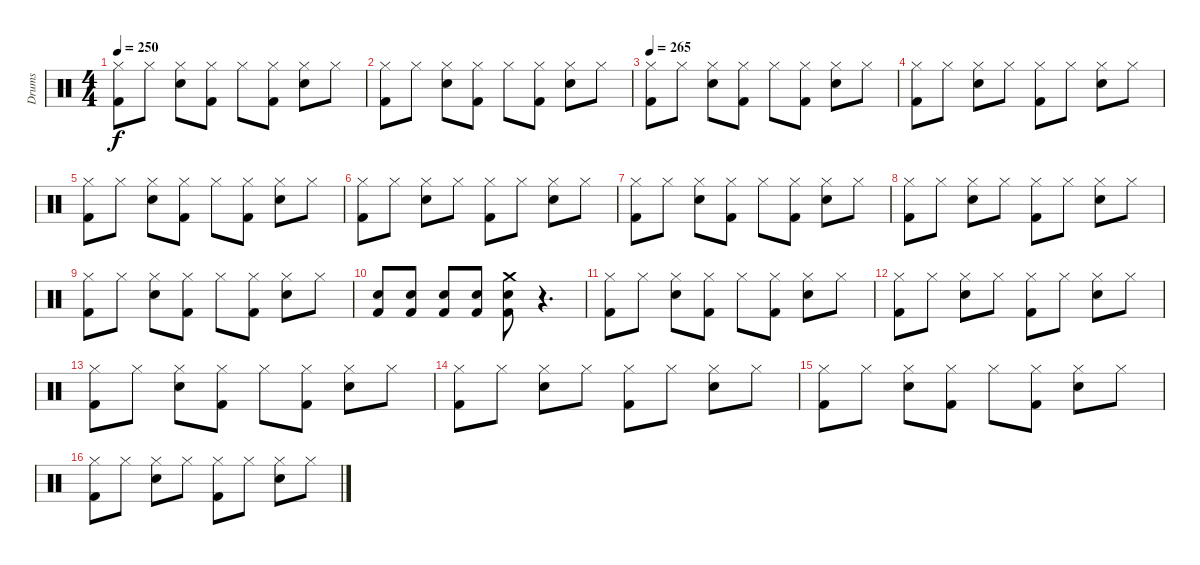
\track ("Drums" "Drums") {instrument percussion}
\staff {score}
\articulation defaults
\ts (4 4)
\tempo 250
\clef neutral
\ks c
("Kick (hit) 2" "Hi-Hat (closed)").8{dy f} "Hi-Hat (closed)".8 ("Snare (hit) 2" "Hi-Hat (closed)").8 ("Kick (hit) 2" "Hi-Hat (closed)").8 "Hi-Hat (closed)".8 ("Kick (hit) 2" "Hi-Hat (closed)").8 ("Snare (hit) 2" "Hi-Hat (closed)").8 "Hi-Hat (closed)".8 |
("Kick (hit) 2" "Hi-Hat (closed)").8 "Hi-Hat (closed)".8 ("Snare (hit) 2" "Hi-Hat (closed)").8 ("Kick (hit) 2" "Hi-Hat (closed)").8 "Hi-Hat (closed)".8 ("Kick (hit) 2" "Hi-Hat (closed)").8 ("Snare (hit) 2" "Hi-Hat (closed)").8 "Hi-Hat (closed)".8 |
\tempo 265
("Kick (hit) 2" "Hi-Hat (closed)").8 "Hi-Hat (closed)".8 ("Snare (hit) 2" "Hi-Hat (closed)").8 ("Kick (hit) 2" "Hi-Hat (closed)").8 "Hi-Hat (closed)".8 ("Kick (hit) 2" "Hi-Hat (closed)").8 ("Snare (hit) 2" "Hi-Hat (closed)").8 "Hi-Hat (closed)".8 |
("Kick (hit) 2" "Hi-Hat (closed)").8 "Hi-Hat (closed)".8 ("Snare (hit) 2" "Hi-Hat (closed)").8 "Hi-Hat (closed)".8 ("Kick (hit) 2" "Hi-Hat (closed)").8 "Hi-Hat (closed)".8 ("Snare (hit) 2" "Hi-Hat (closed)").8 "Hi-Hat (closed)".8 |
("Kick (hit) 2" "Hi-Hat (closed)").8 "Hi-Hat (closed)".8 ("Snare (hit) 2" "Hi-Hat (closed)").8 ("Kick (hit) 2" "Hi-Hat (closed)").8 "Hi-Hat (closed)".8 ("Kick (hit) 2" "Hi-Hat (closed)").8 ("Snare (hit) 2" "Hi-Hat (closed)").8 "Hi-Hat (closed)".8 |
("Kick (hit) 2" "Hi-Hat (closed)").8 "Hi-Hat (closed)".8 ("Snare (hit) 2" "Hi-Hat (closed)").8 "Hi-Hat (closed)".8 ("Kick (hit) 2" "Hi-Hat (closed)").8 "Hi-Hat (closed)".8 ("Snare (hit) 2" "Hi-Hat (closed)").8 "Hi-Hat (closed)".8 |
("Kick (hit) 2" "Hi-Hat (closed)").8 "Hi-Hat (closed)".8 ("Snare (hit) 2" "Hi-Hat (closed)").8 ("Kick (hit) 2" "Hi-Hat (closed)").8 "Hi-Hat (closed)".8 ("Kick (hit) 2" "Hi-Hat (closed)").8 ("Snare (hit) 2" "Hi-Hat (closed)").8 "Hi-Hat (closed)".8 |
("Kick (hit) 2" "Hi-Hat (closed)").8 "Hi-Hat (closed)".8 ("Snare (hit) 2" "Hi-Hat (closed)").8 "Hi-Hat (closed)".8 ("Kick (hit) 2" "Hi-Hat (closed)").8 "Hi-Hat (closed)".8 ("Snare (hit) 2" "Hi-Hat (closed)").8 "Hi-Hat (closed)".8 |
("Kick (hit) 2" "Hi-Hat (closed)").8 "Hi-Hat (closed)".8 ("Snare (hit) 2" "Hi-Hat (closed)").8 ("Kick (hit) 2" "Hi-Hat (closed)").8 "Hi-Hat (closed)".8 ("Kick (hit) 2" "Hi-Hat (closed)").8 ("Snare (hit) 2" "Hi-Hat (closed)").8 "Hi-Hat (closed)".8 |
("Kick (hit) 2" "Snare (hit) 2").8 ("Kick (hit) 2" "Snare (hit) 2").8 ("Kick (hit) 2" "Snare (hit) 2").8 ("Kick (hit) 2" "Snare (hit) 2").8 ("Kick (hit) 2" "Snare (hit) 2" "Crash medium (hit)").8 r.4{d} |
("Kick (hit) 2" "Hi-Hat (closed)").8 "Hi-Hat (closed)".8 ("Snare (hit) 2" "Hi-Hat (closed)").8 ("Kick (hit) 2" "Hi-Hat (closed)").8 "Hi-Hat (closed)".8 ("Kick (hit) 2" "Hi-Hat (closed)").8 ("Snare (hit) 2" "Hi-Hat (closed)").8 "Hi-Hat (closed)".8 |
("Kick (hit) 2" "Hi-Hat (closed)").8 "Hi-Hat (closed)".8 ("Snare (hit) 2" "Hi-Hat (closed)").8 "Hi-Hat (closed)".8 ("Kick (hit) 2" "Hi-Hat (closed)").8 "Hi-Hat (closed)".8 ("Snare (hit) 2" "Hi-Hat (closed)").8 "Hi-Hat (closed)".8 |
("Kick (hit) 2" "Hi-Hat (closed)").8 "Hi-Hat (closed)".8 ("Snare (hit) 2" "Hi-Hat (closed)").8 ("Kick (hit) 2" "Hi-Hat (closed)").8 "Hi-Hat (closed)".8 ("Kick (hit) 2" "Hi-Hat (closed)").8 ("Snare (hit) 2" "Hi-Hat (closed)").8 "Hi-Hat (closed)".8 |
("Kick (hit) 2" "Hi-Hat (closed)").8 "Hi-Hat (closed)".8 ("Snare (hit) 2" "Hi-Hat (closed)").8 "Hi-Hat (closed)".8 ("Kick (hit) 2" "Hi-Hat (closed)").8 "Hi-Hat (closed)".8 ("Snare (hit) 2" "Hi-Hat (closed)").8 "Hi-Hat (closed)".8 |
("Kick (hit) 2" "Hi-Hat (closed)").8 "Hi-Hat (closed)".8 ("Snare (hit) 2" "Hi-Hat (closed)").8 ("Kick (hit) 2" "Hi-Hat (closed)").8 "Hi-Hat (closed)".8 ("Kick (hit) 2" "Hi-Hat (closed)").8 ("Snare (hit) 2" "Hi-Hat (closed)").8 "Hi-Hat (closed)".8 |
("Kick (hit) 2" "Hi-Hat (closed)").8 "Hi-Hat (closed)".8 ("Snare (hit) 2" "Hi-Hat (closed)").8 "Hi-Hat (closed)".8 ("Kick (hit) 2" "Hi-Hat (closed)").8 "Hi-Hat (closed)".8 ("Snare (hit) 2" "Hi-Hat (closed)").8 "Hi-Hat (closed)".8
